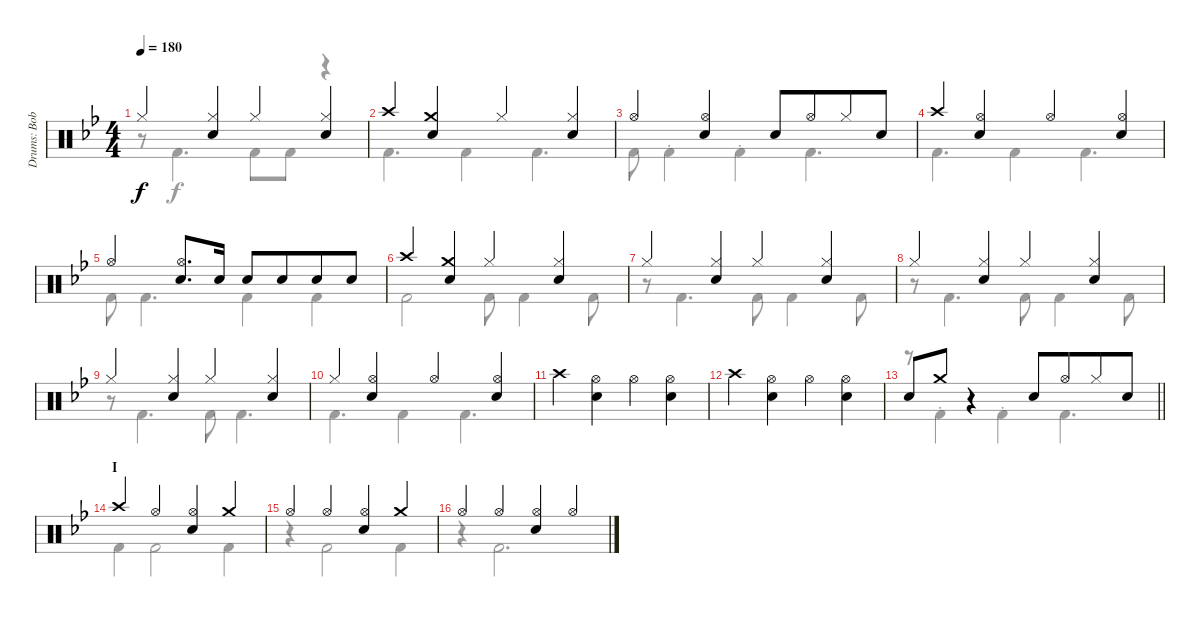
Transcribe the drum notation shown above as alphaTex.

\track ("Drums: Bobby" "Drums: Bob") {instrument percussion}
\staff {score}
\articulation defaults
\voice
\ts (4 4)
\tempo 180
\clef neutral
\ks bb "Hi-Hat (closed)".4{dy f}
("Hi-Hat (closed)" "Snare (hit) 2").4 "Hi-Hat (closed)".4 ("Hi-Hat (closed)" "Snare (hit) 2").4 |
"Crash high (hit)".4 ("Crash medium (hit)" "Snare (hit) 2").4 "Hi-Hat (closed)".4 ("Hi-Hat (closed)" "Snare (hit) 2").4 |
"Hi-Hat (open)".4 ("Hi-Hat (open)" "Snare (hit) 2").4 "Snare (hit) 2".8 "Hi-Hat (open)".8{beam merge} "Hi-Hat (closed)".8 "Snare (hit) 2".8 |
"Crash high (hit)".4 ("Hi-Hat (open)" "Snare (hit) 2").4 "Hi-Hat (open)".4 ("Hi-Hat (open)" "Snare (hit) 2").4 |
"Hi-Hat (open)".4 ("Hi-Hat (open)" "Snare (hit) 2").8{d} "Snare (hit) 2".16 "Snare (hit) 2".8 "Snare (hit) 2".8{beam merge} "Snare (hit) 2".8 "Snare (hit) 2".8 |
"Crash high (hit)".4 ("Crash medium (hit)" "Snare (hit) 2").4 "Hi-Hat (closed)".4 ("Hi-Hat (closed)" "Snare (hit) 2").4 |
"Hi-Hat (closed)".4 ("Hi-Hat (closed)" "Snare (hit) 2").4 "Hi-Hat (closed)".4 ("Hi-Hat (closed)" "Snare (hit) 2").4 |
"Hi-Hat (closed)".4 ("Hi-Hat (closed)" "Snare (hit) 2").4 "Hi-Hat (closed)".4 ("Hi-Hat (closed)" "Snare (hit) 2").4 |
"Hi-Hat (closed)".4 ("Hi-Hat (closed)" "Snare (hit) 2").4 "Hi-Hat (closed)".4 ("Hi-Hat (closed)" "Snare (hit) 2").4 |
"Hi-Hat (closed)".4 ("Hi-Hat (open)" "Snare (hit) 2").4 "Hi-Hat (open)".4 ("Hi-Hat (open)" "Snare (hit) 2").4 |
"Crash high (hit)".4 ("Hi-Hat (open)" "Snare (hit) 2").4 "Hi-Hat (open)".4 ("Hi-Hat (open)" "Snare (hit) 2").4 |
"Crash high (hit)".4 ("Hi-Hat (open)" "Snare (hit) 2").4 "Hi-Hat (open)".4 ("Hi-Hat (open)" "Snare (hit) 2").4 |
\barLineRight lightlight "Snare (hit) 2".8 "Crash medium (hit)".8
r.4 "Snare (hit) 2".8 "Hi-Hat (open)".8{beam merge} "Hi-Hat (closed)".8 "Snare (hit) 2".8 |
\section ("" "I")
"Crash high (hit)".4 "Hi-Hat (open)".4 ("Hi-Hat (open)" "Snare (hit) 2").4 "Crash medium (hit)".4 |
"Hi-Hat (open)".4 "Hi-Hat (open)".4 ("Hi-Hat (open)" "Snare (hit) 2").4 "Crash medium (hit)".4 |
"Hi-Hat (open)".4 "Hi-Hat (open)".4 ("Hi-Hat (open)" "Snare (hit) 2").4 "Hi-Hat (open)".4
\voice
\clef neutral
\ottava regular
\simile none
\ks bb
r.8{dy f} "Kick (hit) 2".4{d} "Kick (hit) 2".8 "Kick (hit) 2".8 r.4 |
"Kick (hit) 2".4{d} "Kick (hit) 2".4 "Kick (hit) 2".4{d} |
"Kick (hit) 2".8 "Kick (hit) 2"{st}.4 "Kick (hit) 2"{st}.4 "Kick (hit) 2".4{d} |
"Kick (hit) 2".4{d} "Kick (hit) 2".4 "Kick (hit) 2".4{d} |
"Kick (hit) 2".8 "Kick (hit) 2".4{d} "Kick (hit) 2".4 "Kick (hit) 2".4 |
"Kick (hit) 2".2 "Kick (hit) 2".8 "Kick (hit) 2".4 "Kick (hit) 2".8 |
r.8 "Kick (hit) 2".4{d} "Kick (hit) 2".8 "Kick (hit) 2".4 "Kick (hit) 2".8 |
r.8 "Kick (hit) 2".4{d} "Kick (hit) 2".8 "Kick (hit) 2".4 "Kick (hit) 2".8 |
r.8 "Kick (hit) 2".4{d} "Kick (hit) 2".8 "Kick (hit) 2".4{d} |
"Kick (hit) 2".4{d} "Kick (hit) 2".4 "Kick (hit) 2".4{d} |
|
|
\barLineRight lightlight
r.8 "Kick (hit) 2"{st}.4 "Kick (hit) 2"{st}.4 "Kick (hit) 2".4{d} |
"Kick (hit) 2".4 "Kick (hit) 2".2 "Kick (hit) 2".4 |
r.4 "Kick (hit) 2".2 "Kick (hit) 2".4 |
r.4 "Kick (hit) 2".2{d}
